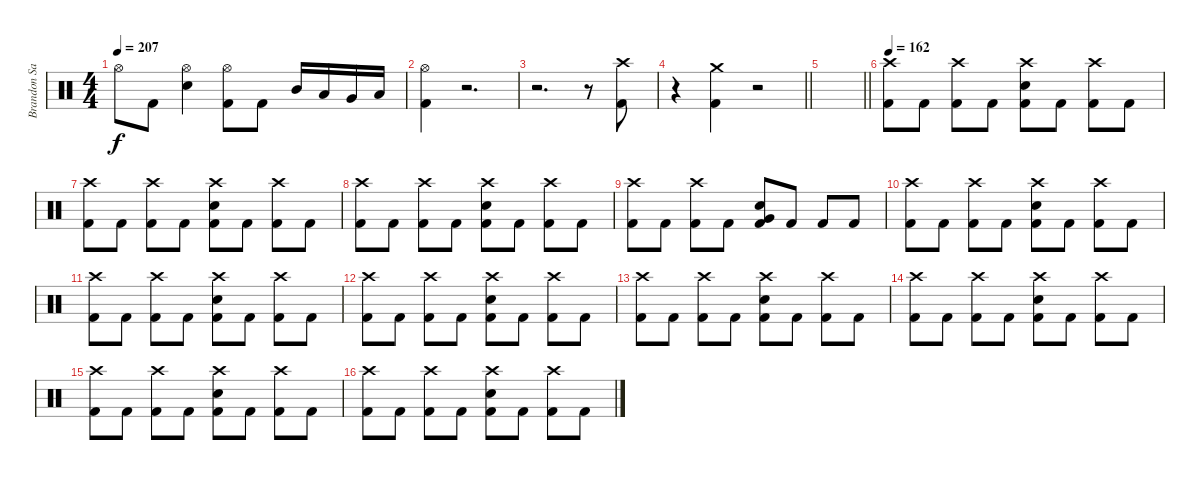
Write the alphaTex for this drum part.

\track ("Brandon Saller" "Brandon Sa") {instrument percussion}
\staff {score}
\articulation defaults
\ts (4 4)
\tempo 207
\clef neutral
\ks c "Hi-Hat (open)".8{dy f} "Kick (hit) 2".8
("Hi-Hat (open)" "Electric Snare (hit)").4 ("Hi-Hat (open)" "Kick (hit) 2").8 "Kick (hit) 2".8 "Mid Tom (hit)".16 "Low Tom (hit)".16 "Very Low Tom (hit)".16 "Low Floor Tom (hit)".16 |
("Hi-Hat (open)" "Kick (hit) 2").4 r.2{d volume 0} |
r.2{d} r.8{volume 16} ("Crash high (hit)" "Kick (hit) 2").8 |
\barLineRight lightlight
r.4 ("Crash medium (hit)" "Kick (hit) 2").4 r.2{volume 0} |
\barLineRight lightlight
|
\tempo 162
("Crash high (hit)" "Kick (hit) 2").8{volume 14} "Kick (hit) 2".8 ("Crash high (hit)" "Kick (hit) 2").8 "Kick (hit) 2".8 ("Crash high (hit)" "Electric Snare (hit)" "Kick (hit) 2").8 "Kick (hit) 2".8 ("Crash high (hit)" "Kick (hit) 2").8 "Kick (hit) 2".8 |
("Crash high (hit)" "Kick (hit) 2").8 "Kick (hit) 2".8 ("Crash high (hit)" "Kick (hit) 2").8 "Kick (hit) 2".8 ("Crash high (hit)" "Electric Snare (hit)" "Kick (hit) 2").8 "Kick (hit) 2".8 ("Crash high (hit)" "Kick (hit) 2").8 "Kick (hit) 2".8 |
("Crash high (hit)" "Kick (hit) 2").8 "Kick (hit) 2".8 ("Crash high (hit)" "Kick (hit) 2").8 "Kick (hit) 2".8 ("Crash high (hit)" "Electric Snare (hit)" "Kick (hit) 2").8 "Kick (hit) 2".8 ("Crash high (hit)" "Kick (hit) 2").8 "Kick (hit) 2".8 |
("Crash high (hit)" "Kick (hit) 2").8 "Kick (hit) 2".8 ("Crash high (hit)" "Kick (hit) 2").8 "Kick (hit) 2".8 ("Very Low Tom (hit)" "Electric Snare (hit)" "Kick (hit) 2").8 "Kick (hit) 2".8 "Kick (hit) 2".8 "Kick (hit) 2".8 |
("Crash high (hit)" "Kick (hit) 2").8 "Kick (hit) 2".8 ("Crash high (hit)" "Kick (hit) 2").8 "Kick (hit) 2".8 ("Crash high (hit)" "Electric Snare (hit)" "Kick (hit) 2").8 "Kick (hit) 2".8 ("Crash high (hit)" "Kick (hit) 2").8 "Kick (hit) 2".8 |
("Crash high (hit)" "Kick (hit) 2").8 "Kick (hit) 2".8 ("Crash high (hit)" "Kick (hit) 2").8 "Kick (hit) 2".8 ("Crash high (hit)" "Electric Snare (hit)" "Kick (hit) 2").8 "Kick (hit) 2".8 ("Crash high (hit)" "Kick (hit) 2").8 "Kick (hit) 2".8 |
("Crash high (hit)" "Kick (hit) 2").8 "Kick (hit) 2".8 ("Crash high (hit)" "Kick (hit) 2").8 "Kick (hit) 2".8 ("Crash high (hit)" "Electric Snare (hit)" "Kick (hit) 2").8 "Kick (hit) 2".8 ("Crash high (hit)" "Kick (hit) 2").8 "Kick (hit) 2".8 |
("Crash high (hit)" "Kick (hit) 2").8 "Kick (hit) 2".8 ("Crash high (hit)" "Kick (hit) 2").8 "Kick (hit) 2".8 ("Crash high (hit)" "Electric Snare (hit)" "Kick (hit) 2").8 "Kick (hit) 2".8 ("Crash high (hit)" "Kick (hit) 2").8 "Kick (hit) 2".8 |
("Crash high (hit)" "Kick (hit) 2").8 "Kick (hit) 2".8 ("Crash high (hit)" "Kick (hit) 2").8 "Kick (hit) 2".8 ("Crash high (hit)" "Electric Snare (hit)" "Kick (hit) 2").8 "Kick (hit) 2".8 ("Crash high (hit)" "Kick (hit) 2").8 "Kick (hit) 2".8 |
("Crash high (hit)" "Kick (hit) 2").8 "Kick (hit) 2".8 ("Crash high (hit)" "Kick (hit) 2").8 "Kick (hit) 2".8 ("Crash high (hit)" "Electric Snare (hit)" "Kick (hit) 2").8 "Kick (hit) 2".8 ("Crash high (hit)" "Kick (hit) 2").8 "Kick (hit) 2".8 |
("Crash high (hit)" "Kick (hit) 2").8 "Kick (hit) 2".8 ("Crash high (hit)" "Kick (hit) 2").8 "Kick (hit) 2".8 ("Crash high (hit)" "Electric Snare (hit)" "Kick (hit) 2").8 "Kick (hit) 2".8 ("Crash high (hit)" "Kick (hit) 2").8 "Kick (hit) 2".8
